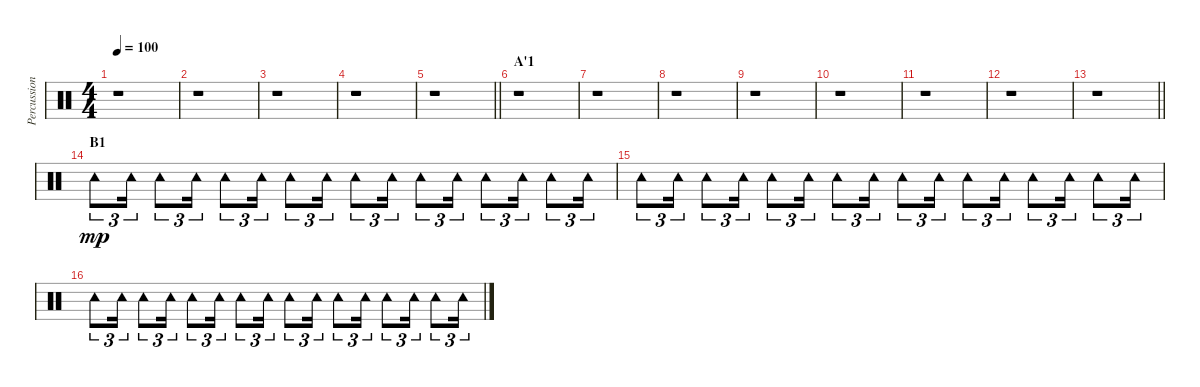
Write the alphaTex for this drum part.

\track ("Percussion" "Percussion") {instrument percussion}
\staff {score}
\articulation defaults
\ts (4 4)
\tempo 100
\clef neutral
\ks c
r.1{dy mp} |
r.1 |
r.1 |
r.1 |
\barLineRight lightlight
r.1 |
\section ("" "A'1")
r.1 |
r.1 |
r.1 |
r.1 |
r.1 |
r.1 |
r.1 |
\barLineRight lightlight
r.1 |
\section ("" "B1")
"Tambourine (hit)".8{tu (3 2)} "Tambourine (hit)".16{tu (3 2)} "Tambourine (hit)".8{tu (3 2)} "Tambourine (hit)".16{tu (3 2)} "Tambourine (hit)".8{tu (3 2)} "Tambourine (hit)".16{tu (3 2)} "Tambourine (hit)".8{tu (3 2)} "Tambourine (hit)".16{tu (3 2)} "Tambourine (hit)".8{tu (3 2)} "Tambourine (hit)".16{tu (3 2)} "Tambourine (hit)".8{tu (3 2)} "Tambourine (hit)".16{tu (3 2)} "Tambourine (hit)".8{tu (3 2)} "Tambourine (hit)".16{tu (3 2)} "Tambourine (hit)".8{tu (3 2)} "Tambourine (hit)".16{tu (3 2)} |
"Tambourine (hit)".8{tu (3 2)} "Tambourine (hit)".16{tu (3 2)} "Tambourine (hit)".8{tu (3 2)} "Tambourine (hit)".16{tu (3 2)} "Tambourine (hit)".8{tu (3 2)} "Tambourine (hit)".16{tu (3 2)} "Tambourine (hit)".8{tu (3 2)} "Tambourine (hit)".16{tu (3 2)} "Tambourine (hit)".8{tu (3 2)} "Tambourine (hit)".16{tu (3 2)} "Tambourine (hit)".8{tu (3 2)} "Tambourine (hit)".16{tu (3 2)} "Tambourine (hit)".8{tu (3 2)} "Tambourine (hit)".16{tu (3 2)} "Tambourine (hit)".8{tu (3 2)} "Tambourine (hit)".16{tu (3 2)} |
"Tambourine (hit)".8{tu (3 2)} "Tambourine (hit)".16{tu (3 2)} "Tambourine (hit)".8{tu (3 2)} "Tambourine (hit)".16{tu (3 2)} "Tambourine (hit)".8{tu (3 2)} "Tambourine (hit)".16{tu (3 2)} "Tambourine (hit)".8{tu (3 2)} "Tambourine (hit)".16{tu (3 2)} "Tambourine (hit)".8{tu (3 2)} "Tambourine (hit)".16{tu (3 2)} "Tambourine (hit)".8{tu (3 2)} "Tambourine (hit)".16{tu (3 2)} "Tambourine (hit)".8{tu (3 2)} "Tambourine (hit)".16{tu (3 2)} "Tambourine (hit)".8{tu (3 2)} "Tambourine (hit)".16{tu (3 2)}
